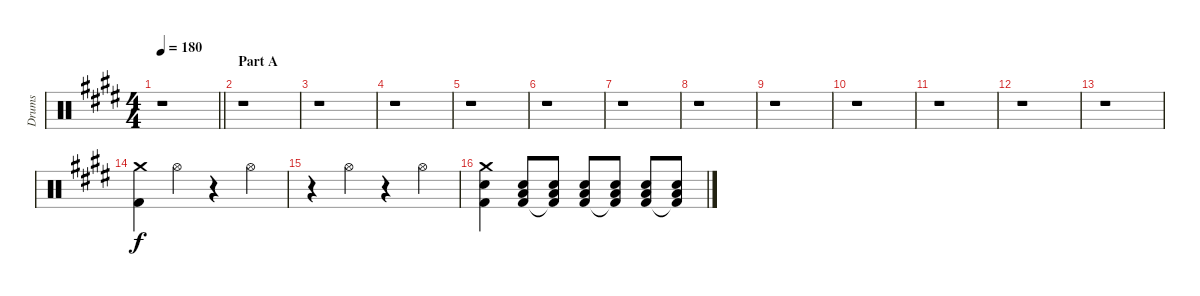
\track ("Drums" "Drums") {instrument percussion}
\staff {score}
\articulation defaults
\ts (4 4)
\tempo 180
\clef neutral
\barLineRight lightlight
\ks e
r.1{dy f} |
\section ("" "Part A")
r.1 |
r.1 |
r.1 |
r.1 |
r.1 |
r.1 |
r.1 |
r.1 |
r.1 |
r.1 |
r.1 |
r.1 |
("Crash medium (hit)" "Kick (hit) 2").4 "Hi-Hat (open)".4 r.4 "Hi-Hat (open)".4 |
r.4 "Hi-Hat (open)".4 r.4 "Hi-Hat (open)".4 |
("Crash medium (hit)" "Electric Snare (hit)" "Kick (hit) 2").4 ("Electric Snare (hit)" "Low Floor Tom (hit)" "Kick (hit) 2").8 ("Electric Snare (hit)" "Low Floor Tom (hit)" "Kick (hit) 2"{t}).8 ("Electric Snare (hit)" "Low Floor Tom (hit)" "Kick (hit) 2").8 ("Electric Snare (hit)" "Low Floor Tom (hit)" "Kick (hit) 2"{t}).8 ("Electric Snare (hit)" "Low Floor Tom (hit)" "Kick (hit) 2").8 ("Electric Snare (hit)" "Low Floor Tom (hit)" "Kick (hit) 2"{t}).8
